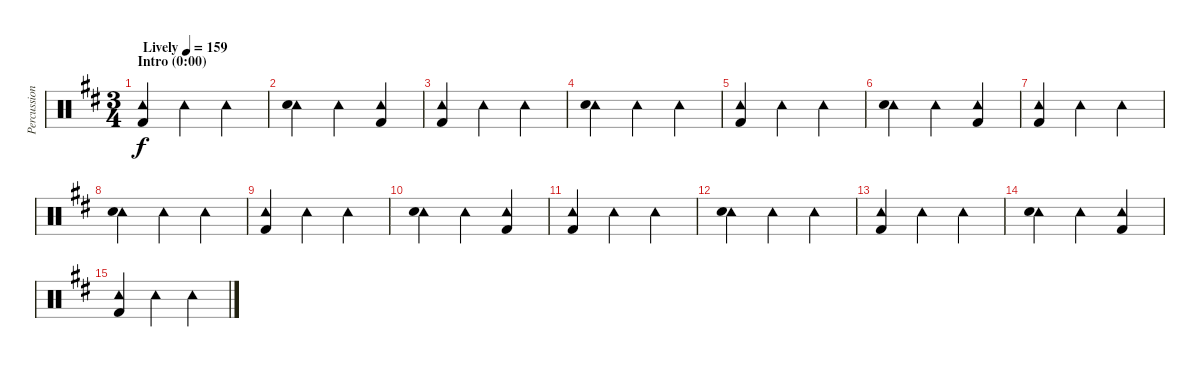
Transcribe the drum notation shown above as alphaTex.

\track ("Percussion" "Percussion") {instrument percussion}
\staff {score}
\articulation defaults
\ts (3 4)
\section ("" "Intro (0:00)")
\tempo (159 "Lively")
\clef neutral
\ks d
("Tambourine (hit)" "Kick (hit) 2").4{dy f} "Tambourine (hit)".4 "Tambourine (hit)".4 |
("Tambourine (hit)" "Electric Snare (hit)").4 "Tambourine (hit)".4 ("Tambourine (hit)" "Kick (hit) 2").4 |
("Tambourine (hit)" "Kick (hit) 2").4 "Tambourine (hit)".4 "Tambourine (hit)".4 |
("Tambourine (hit)" "Electric Snare (hit)").4 "Tambourine (hit)".4 "Tambourine (hit)".4 |
("Tambourine (hit)" "Kick (hit) 2").4 "Tambourine (hit)".4 "Tambourine (hit)".4 |
("Tambourine (hit)" "Electric Snare (hit)").4 "Tambourine (hit)".4 ("Tambourine (hit)" "Kick (hit) 2").4 |
("Tambourine (hit)" "Kick (hit) 2").4 "Tambourine (hit)".4 "Tambourine (hit)".4 |
("Tambourine (hit)" "Electric Snare (hit)").4 "Tambourine (hit)".4 "Tambourine (hit)".4 |
("Tambourine (hit)" "Kick (hit) 2").4 "Tambourine (hit)".4 "Tambourine (hit)".4 |
("Tambourine (hit)" "Electric Snare (hit)").4 "Tambourine (hit)".4 ("Tambourine (hit)" "Kick (hit) 2").4 |
("Tambourine (hit)" "Kick (hit) 2").4 "Tambourine (hit)".4 "Tambourine (hit)".4 |
("Tambourine (hit)" "Electric Snare (hit)").4 "Tambourine (hit)".4 "Tambourine (hit)".4 |
("Tambourine (hit)" "Kick (hit) 2").4 "Tambourine (hit)".4 "Tambourine (hit)".4 |
("Tambourine (hit)" "Electric Snare (hit)").4 "Tambourine (hit)".4 ("Tambourine (hit)" "Kick (hit) 2").4 |
("Tambourine (hit)" "Kick (hit) 2").4 "Tambourine (hit)".4 "Tambourine (hit)".4
